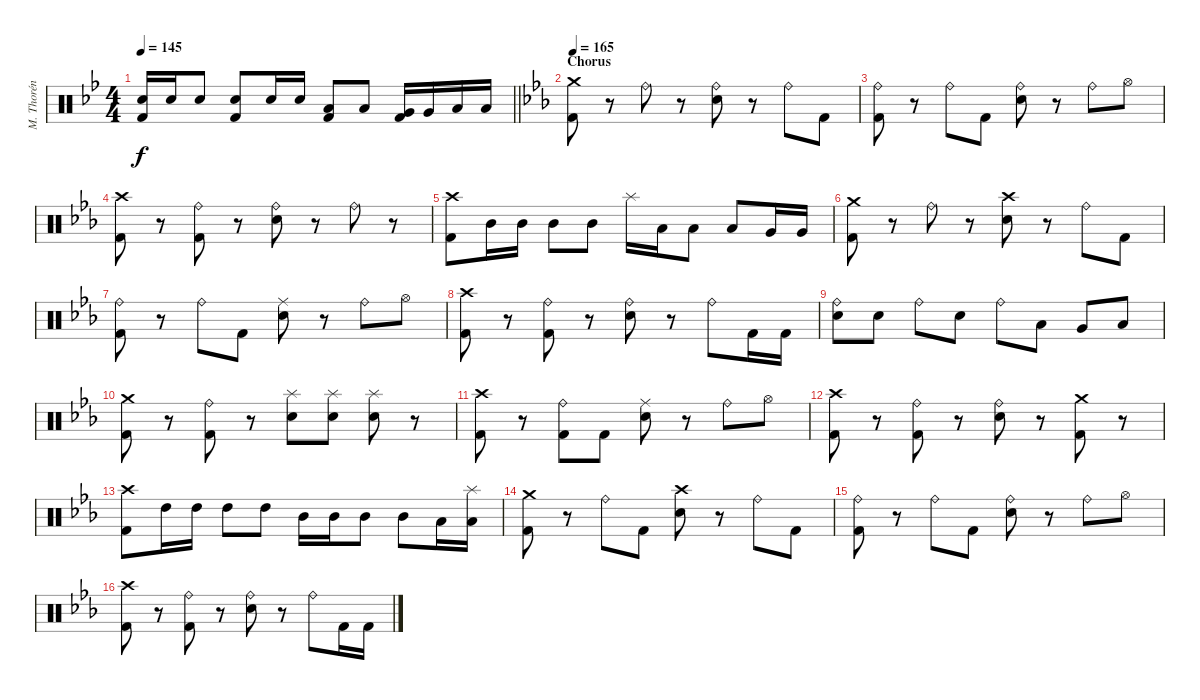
\track ("M. Thorén (Drums)" "M. Thorén ") {instrument percussion}
\staff {score}
\articulation defaults
\ts (4 4)
\tempo 145
\clef neutral
\barLineRight lightlight
\ks gminor
("Electric Snare (hit)" "Kick (hit) 2").16{dy f} "Electric Snare (hit)".16 "Electric Snare (hit)".8 ("Electric Snare (hit)" "Kick (hit) 2").8 "Electric Snare (hit)".16 "Electric Snare (hit)".16 ("Low Tom (hit)" "Kick (hit) 2").8 "Low Tom (hit)".8 ("Very Low Tom (hit)" "Kick (hit) 2").16 "Very Low Tom (hit)".16 "Low Floor Tom (hit)".16 "Low Floor Tom (hit)".16 |
\section ("" "Chorus")
\tempo 165
\ks cminor
("Crash medium (hit)" "Kick (hit) 2").8 r.8 "Ride (bell)".8 r.8 ("Ride (bell)" "Electric Snare (hit)").8 r.8 "Ride (bell)".8 "Kick (hit) 2".8 |
("Ride (bell)" "Kick (hit) 2").8 r.8 "Ride (bell)".8 "Kick (hit) 2".8 ("Ride (bell)" "Electric Snare (hit)").8 r.8 "Ride (bell)".8 "Hi-Hat (open)".8 |
("Crash high (hit)" "Kick (hit) 2").8 r.8 ("Ride (bell)" "Kick (hit) 2").8 r.8 ("Ride (bell)" "Electric Snare (hit)").8 r.8 "Ride (bell)".8 r.8 |
("Crash high (hit)" "Kick (hit) 2").8 "Mid Tom (hit)".16 "Mid Tom (hit)".16 "Mid Tom (hit)".8 "Mid Tom (hit)".8 "Splash (hit)".16 "Low Tom (hit)".16 "Low Tom (hit)".8 "Low Tom (hit)".8 "Very Low Tom (hit)".16 "Very Low Tom (hit)".16 |
("Crash medium (hit)" "Kick (hit) 2").8 r.8 "Ride (bell)".8 r.8 ("Crash high (hit)" "Electric Snare (hit)").8 r.8 "Ride (bell)".8 "Kick (hit) 2".8 |
("Ride (bell)" "Kick (hit) 2").8 r.8 "Ride (bell)".8 "Kick (hit) 2".8 ("Ride (middle)" "Electric Snare (hit)").8 r.8 "Ride (bell)".8 "Hi-Hat (open)".8 |
("Crash high (hit)" "Kick (hit) 2").8 r.8 ("Ride (bell)" "Kick (hit) 2").8 r.8 ("Ride (bell)" "Electric Snare (hit)").8 r.8 "Ride (bell)".8 "Kick (hit) 2".16 "Kick (hit) 2".16 |
("Ride (bell)" "Electric Snare (hit)").8 "Electric Snare (hit)".8 "Ride (bell)".8 "Electric Snare (hit)".8 "Ride (bell)".8 "Low Tom (hit)".8 "Very Low Tom (hit)".8 "Low Floor Tom (hit)".8 |
("Crash medium (hit)" "Kick (hit) 2").8 r.8 ("Ride (bell)" "Kick (hit) 2").8 r.8 ("Splash (hit)" "Electric Snare (hit)").8 ("Splash (hit)" "Electric Snare (hit)").8 ("Splash (hit)" "Electric Snare (hit)").8 r.8 |
("Crash high (hit)" "Kick (hit) 2").8 r.8 ("Ride (bell)" "Kick (hit) 2").8 "Kick (hit) 2".8 ("Ride (middle)" "Electric Snare (hit)").8 r.8 "Ride (bell)".8 "Hi-Hat (open)".8 |
("Crash high (hit)" "Kick (hit) 2").8 r.8 ("Ride (bell)" "Kick (hit) 2").8 r.8 ("Ride (bell)" "Electric Snare (hit)").8 r.8 ("Crash medium (hit)" "Kick (hit) 2").8 r.8 |
("Crash high (hit)" "Kick (hit) 2").8 "High Tom (hit)".16 "High Tom (hit)".16 "High Tom (hit)".8 "High Tom (hit)".8 "Mid Tom (hit)".16 "Mid Tom (hit)".16 "Mid Tom (hit)".8 "Mid Tom (hit)".8 "Low Tom (hit)".16 ("Splash (hit)" "Low Tom (hit)").16 |
("Crash medium (hit)" "Kick (hit) 2").8 r.8 "Ride (bell)".8 "Kick (hit) 2".8 ("Crash high (hit)" "Electric Snare (hit)").8 r.8 "Ride (bell)".8 "Kick (hit) 2".8 |
("Ride (bell)" "Kick (hit) 2").8 r.8 "Ride (bell)".8 "Kick (hit) 2".8 ("Ride (bell)" "Electric Snare (hit)").8 r.8 "Ride (bell)".8 "Hi-Hat (open)".8 |
("Crash high (hit)" "Kick (hit) 2").8 r.8 ("Ride (bell)" "Kick (hit) 2").8 r.8 ("Ride (bell)" "Electric Snare (hit)").8 r.8 "Ride (bell)".8 "Kick (hit) 2".16 "Kick (hit) 2".16
